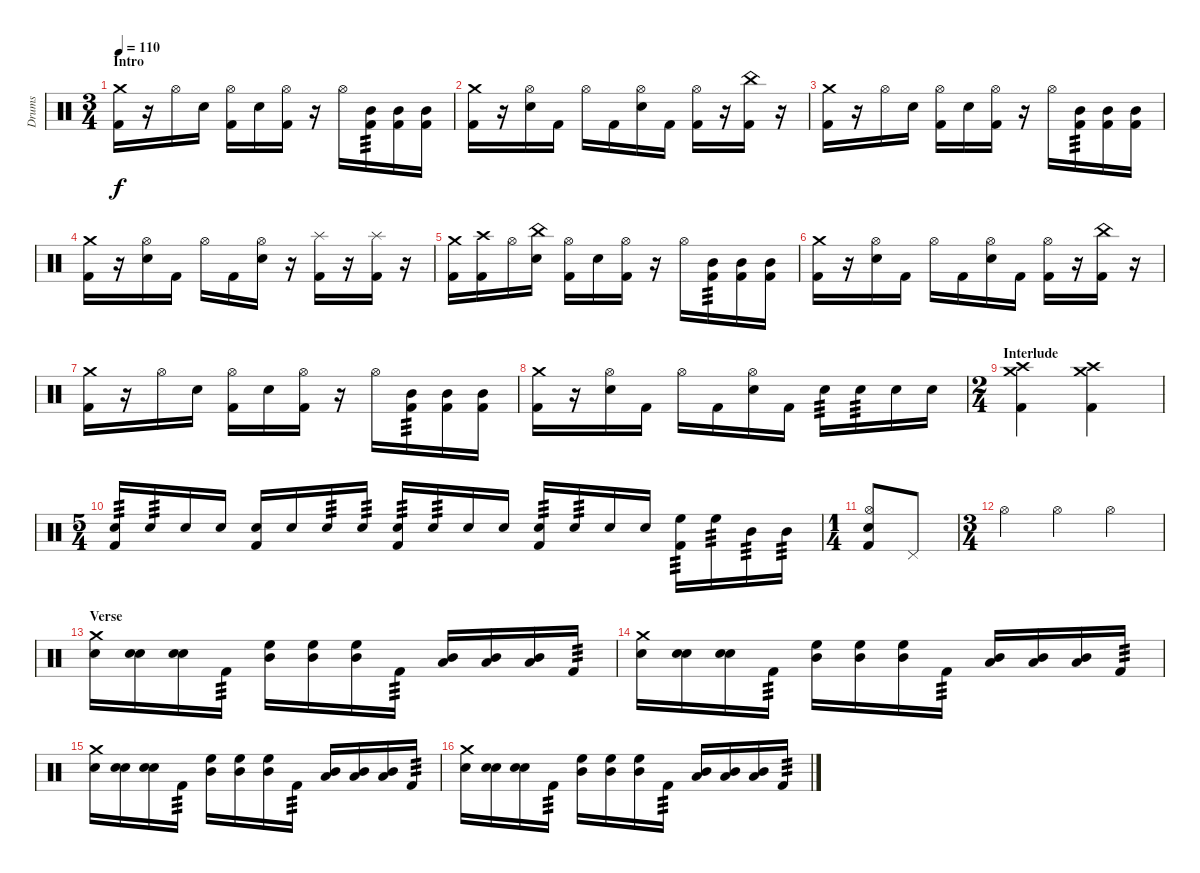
\track ("Drums" "Drums") {instrument percussion}
\staff {score}
\articulation defaults
\ts (3 4)
\section ("" "Intro")
\tempo 110
\clef neutral
\ks c
("Crash medium (hit)" "Kick (hit) 2").16{dy f} r.16 "Hi-Hat (open)".16 "Snare (hit) 2".16 ("Hi-Hat (open)" "Kick (hit) 2").16 "Snare (hit) 2".16 ("Hi-Hat (open)" "Kick (hit) 2").16 r.16 "Hi-Hat (open)".16 ("Mid Tom (hit)" "Kick (hit) 2").16{tp 3} ("Mid Tom (hit)" "Kick (hit) 2").16 ("Mid Tom (hit)" "Kick (hit) 2").16 |
("Crash medium (hit)" "Kick (hit) 2").16 r.16 ("Hi-Hat (open)" "Snare (hit) 2").16 "Kick (hit) 2".16 "Hi-Hat (open)".16 "Kick (hit) 2".16 ("Hi-Hat (open)" "Snare (hit) 2").16 "Kick (hit) 2".16 ("Hi-Hat (open)" "Kick (hit) 2").16 r.16 ("China (hit)" "Kick (hit) 2").16 r.16 |
("Crash medium (hit)" "Kick (hit) 2").16 r.16 "Hi-Hat (open)".16 "Snare (hit) 2".16 ("Hi-Hat (open)" "Kick (hit) 2").16 "Snare (hit) 2".16 ("Hi-Hat (open)" "Kick (hit) 2").16 r.16 "Hi-Hat (open)".16 ("Mid Tom (hit)" "Kick (hit) 2").16{tp 3} ("Mid Tom (hit)" "Kick (hit) 2").16 ("Mid Tom (hit)" "Kick (hit) 2").16 |
("Crash medium (hit)" "Kick (hit) 2").16 r.16 ("Hi-Hat (open)" "Snare (hit) 2").16 "Kick (hit) 2".16 "Hi-Hat (open)".16 "Kick (hit) 2".16 ("Hi-Hat (open)" "Snare (hit) 2").16 r.16 ("Splash (hit)" "Kick (hit) 2").16 r.16 ("Splash (hit)" "Kick (hit) 2").16 r.16 |
("Crash medium (hit)" "Kick (hit) 2").16 ("Crash high (hit)" "Kick (hit) 2").16 "Hi-Hat (open)".16 ("China (hit)" "Snare (hit) 2").16 ("Hi-Hat (open)" "Kick (hit) 2").16 "Snare (hit) 2".16 ("Hi-Hat (open)" "Kick (hit) 2").16 r.16 "Hi-Hat (open)".16 ("Mid Tom (hit)" "Kick (hit) 2").16{tp 3} ("Mid Tom (hit)" "Kick (hit) 2").16 ("Mid Tom (hit)" "Kick (hit) 2").16 |
("Crash medium (hit)" "Kick (hit) 2").16 r.16 ("Hi-Hat (open)" "Snare (hit) 2").16 "Kick (hit) 2".16 "Hi-Hat (open)".16 "Kick (hit) 2".16 ("Hi-Hat (open)" "Snare (hit) 2").16 "Kick (hit) 2".16 ("Hi-Hat (open)" "Kick (hit) 2").16 r.16 ("China (hit)" "Kick (hit) 2").16 r.16 |
("Crash medium (hit)" "Kick (hit) 2").16 r.16 "Hi-Hat (open)".16 "Snare (hit) 2".16 ("Hi-Hat (open)" "Kick (hit) 2").16 "Snare (hit) 2".16 ("Hi-Hat (open)" "Kick (hit) 2").16 r.16 "Hi-Hat (open)".16 ("Mid Tom (hit)" "Kick (hit) 2").16{tp 3} ("Mid Tom (hit)" "Kick (hit) 2").16 ("Mid Tom (hit)" "Kick (hit) 2").16 |
("Crash medium (hit)" "Kick (hit) 2").16 r.16 ("Hi-Hat (open)" "Snare (hit) 2").16 "Kick (hit) 2".16 "Hi-Hat (open)".16 "Kick (hit) 2".16 ("Hi-Hat (open)" "Snare (hit) 2").16 "Kick (hit) 2".16 "Snare (hit) 2".16{tp 3} "Snare (hit) 2".16{tp 3} "Snare (hit) 2".16 "Snare (hit) 2".16 |
\ts (2 4)
\section ("" "Interlude")
("Crash medium (hit)" "Crash high (hit)" "Kick (hit) 2").4 ("Crash medium (hit)" "Crash high (hit)" "Kick (hit) 2").4 |
\ts (5 4)
("Snare (hit) 2" "Kick (hit) 2").16{tp 3} "Snare (hit) 2".16{tp 3} "Snare (hit) 2".16 "Snare (hit) 2".16 ("Snare (hit) 2" "Kick (hit) 2").16 "Snare (hit) 2".16 "Snare (hit) 2".16{tp 3} "Snare (hit) 2".16{tp 3} ("Snare (hit) 2" "Kick (hit) 2").16{tp 3} "Snare (hit) 2".16{tp 3} "Snare (hit) 2".16 "Snare (hit) 2".16 ("Snare (hit) 2" "Kick (hit) 2").16{tp 3} "Snare (hit) 2".16{tp 3} "Snare (hit) 2".16 "Snare (hit) 2".16 ("High Floor Tom (hit)" "Kick (hit) 2").16{tp 3} "High Floor Tom (hit)".16{tp 3} "Mid Tom (hit)".16{tp 3} "Mid Tom (hit)".16{tp 3} |
\ts (1 4)
("Hi-Hat (open)" "Snare (hit) 2" "Kick (hit) 2").8 "Pedal Hi-Hat (hit)".8 |
\ts (3 4)
"Hi-Hat (open)".4 "Hi-Hat (open)".4 "Hi-Hat (open)".4 |
\section ("" "Verse")
("Crash medium (hit)" "Snare (hit) 2").16 ("Snare (hit) 2" "Snare (hit) 2").16 ("Snare (hit) 2" "Snare (hit) 2").16 "Kick (hit) 2".16{tp 3} ("High Floor Tom (hit)" "Mid Tom (hit)").16 ("High Floor Tom (hit)" "Mid Tom (hit)").16 ("High Floor Tom (hit)" "Mid Tom (hit)").16 "Kick (hit) 2".16{tp 3} ("Mid Tom (hit)" "Low Tom (hit)").16 ("Mid Tom (hit)" "Low Tom (hit)").16 ("Mid Tom (hit)" "Low Tom (hit)").16 "Kick (hit) 2".16{tp 3} |
("Crash medium (hit)" "Snare (hit) 2").16 ("Snare (hit) 2" "Snare (hit) 2").16 ("Snare (hit) 2" "Snare (hit) 2").16 "Kick (hit) 2".16{tp 3} ("High Floor Tom (hit)" "Mid Tom (hit)").16 ("High Floor Tom (hit)" "Mid Tom (hit)").16 ("High Floor Tom (hit)" "Mid Tom (hit)").16 "Kick (hit) 2".16{tp 3} ("Mid Tom (hit)" "Low Tom (hit)").16 ("Mid Tom (hit)" "Low Tom (hit)").16 ("Mid Tom (hit)" "Low Tom (hit)").16 "Kick (hit) 2".16{tp 3} |
("Crash medium (hit)" "Snare (hit) 2").16 ("Snare (hit) 2" "Snare (hit) 2").16 ("Snare (hit) 2" "Snare (hit) 2").16 "Kick (hit) 2".16{tp 3} ("High Floor Tom (hit)" "Mid Tom (hit)").16 ("High Floor Tom (hit)" "Mid Tom (hit)").16 ("High Floor Tom (hit)" "Mid Tom (hit)").16 "Kick (hit) 2".16{tp 3} ("Mid Tom (hit)" "Low Tom (hit)").16 ("Mid Tom (hit)" "Low Tom (hit)").16 ("Mid Tom (hit)" "Low Tom (hit)").16 "Kick (hit) 2".16{tp 3} |
("Crash medium (hit)" "Snare (hit) 2").16 ("Snare (hit) 2" "Snare (hit) 2").16 ("Snare (hit) 2" "Snare (hit) 2").16 "Kick (hit) 2".16{tp 3} ("High Floor Tom (hit)" "Mid Tom (hit)").16 ("High Floor Tom (hit)" "Mid Tom (hit)").16 ("High Floor Tom (hit)" "Mid Tom (hit)").16 "Kick (hit) 2".16{tp 3} ("Mid Tom (hit)" "Low Tom (hit)").16 ("Mid Tom (hit)" "Low Tom (hit)").16 ("Mid Tom (hit)" "Low Tom (hit)").16 "Kick (hit) 2".16{tp 3}
